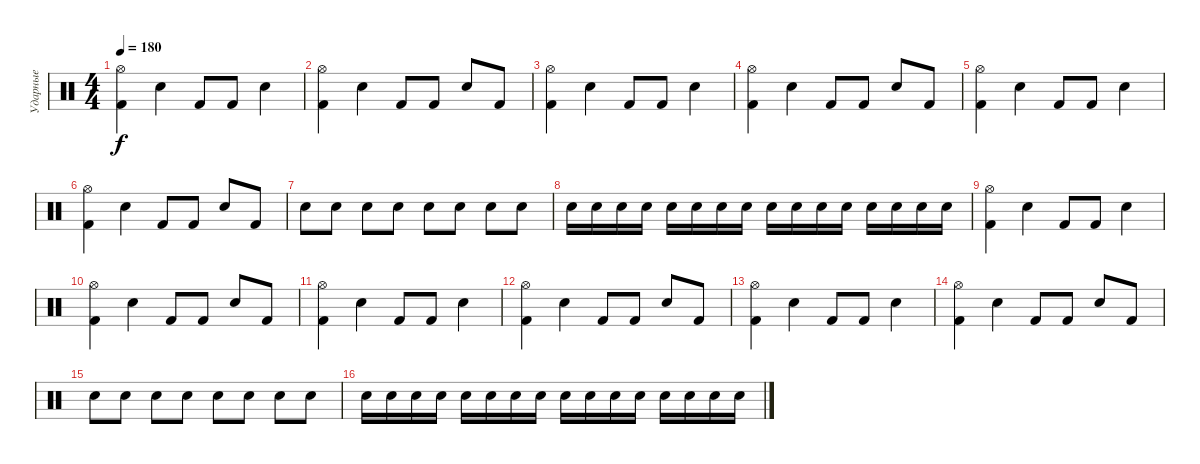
\track ("Ударные" "Ударные") {instrument percussion}
\staff
\articulation defaults
\ts (4 4)
\tempo 180
\clef neutral
\ks c
("Kick (hit) 2" "Hi-Hat (open)").4{dy f} "Electric Snare (hit)".4 "Kick (hit) 2".8 "Kick (hit) 2".8 "Electric Snare (hit)".4 |
("Kick (hit) 2" "Hi-Hat (open)").4 "Electric Snare (hit)".4 "Kick (hit) 2".8 "Kick (hit) 2".8 "Electric Snare (hit)".8 "Kick (hit) 2".8 |
("Kick (hit) 2" "Hi-Hat (open)").4 "Electric Snare (hit)".4 "Kick (hit) 2".8 "Kick (hit) 2".8 "Electric Snare (hit)".4 |
("Kick (hit) 2" "Hi-Hat (open)").4 "Electric Snare (hit)".4 "Kick (hit) 2".8 "Kick (hit) 2".8 "Electric Snare (hit)".8 "Kick (hit) 2".8 |
("Kick (hit) 2" "Hi-Hat (open)").4 "Electric Snare (hit)".4 "Kick (hit) 2".8 "Kick (hit) 2".8 "Electric Snare (hit)".4 |
("Kick (hit) 2" "Hi-Hat (open)").4 "Electric Snare (hit)".4 "Kick (hit) 2".8 "Kick (hit) 2".8 "Electric Snare (hit)".8 "Kick (hit) 2".8 |
"Electric Snare (hit)".8 "Electric Snare (hit)".8 "Electric Snare (hit)".8 "Electric Snare (hit)".8 "Electric Snare (hit)".8 "Electric Snare (hit)".8 "Electric Snare (hit)".8 "Electric Snare (hit)".8 |
"Electric Snare (hit)".16 "Electric Snare (hit)".16 "Electric Snare (hit)".16 "Electric Snare (hit)".16 "Electric Snare (hit)".16 "Electric Snare (hit)".16 "Electric Snare (hit)".16 "Electric Snare (hit)".16 "Electric Snare (hit)".16 "Electric Snare (hit)".16 "Electric Snare (hit)".16 "Electric Snare (hit)".16 "Electric Snare (hit)".16 "Electric Snare (hit)".16 "Electric Snare (hit)".16 "Electric Snare (hit)".16 |
("Kick (hit) 2" "Hi-Hat (open)").4 "Electric Snare (hit)".4 "Kick (hit) 2".8 "Kick (hit) 2".8 "Electric Snare (hit)".4 |
("Kick (hit) 2" "Hi-Hat (open)").4 "Electric Snare (hit)".4 "Kick (hit) 2".8 "Kick (hit) 2".8 "Electric Snare (hit)".8 "Kick (hit) 2".8 |
("Kick (hit) 2" "Hi-Hat (open)").4 "Electric Snare (hit)".4 "Kick (hit) 2".8 "Kick (hit) 2".8 "Electric Snare (hit)".4 |
("Kick (hit) 2" "Hi-Hat (open)").4 "Electric Snare (hit)".4 "Kick (hit) 2".8 "Kick (hit) 2".8 "Electric Snare (hit)".8 "Kick (hit) 2".8 |
("Kick (hit) 2" "Hi-Hat (open)").4 "Electric Snare (hit)".4 "Kick (hit) 2".8 "Kick (hit) 2".8 "Electric Snare (hit)".4 |
("Kick (hit) 2" "Hi-Hat (open)").4 "Electric Snare (hit)".4 "Kick (hit) 2".8 "Kick (hit) 2".8 "Electric Snare (hit)".8 "Kick (hit) 2".8 |
"Electric Snare (hit)".8 "Electric Snare (hit)".8 "Electric Snare (hit)".8 "Electric Snare (hit)".8 "Electric Snare (hit)".8 "Electric Snare (hit)".8 "Electric Snare (hit)".8 "Electric Snare (hit)".8 |
"Electric Snare (hit)".16 "Electric Snare (hit)".16 "Electric Snare (hit)".16 "Electric Snare (hit)".16 "Electric Snare (hit)".16 "Electric Snare (hit)".16 "Electric Snare (hit)".16 "Electric Snare (hit)".16 "Electric Snare (hit)".16 "Electric Snare (hit)".16 "Electric Snare (hit)".16 "Electric Snare (hit)".16 "Electric Snare (hit)".16 "Electric Snare (hit)".16 "Electric Snare (hit)".16 "Electric Snare (hit)".16
